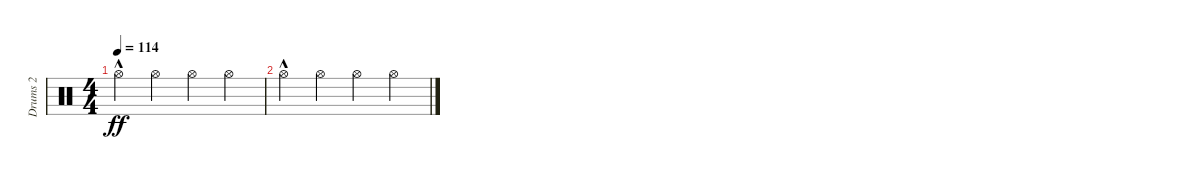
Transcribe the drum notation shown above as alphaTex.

\track ("Drums 2" "Drums 2") {instrument percussion}
\staff {score}
\articulation defaults
\ts (4 4)
\tempo 114
\clef neutral
\ks c "Hi-Hat (open)"{hac}.4{dy ff} "Hi-Hat (open)".4 "Hi-Hat (open)".4 "Hi-Hat (open)".4
|
"Hi-Hat (open)"{hac}.4 "Hi-Hat (open)".4 "Hi-Hat (open)".4 "Hi-Hat (open)".4
